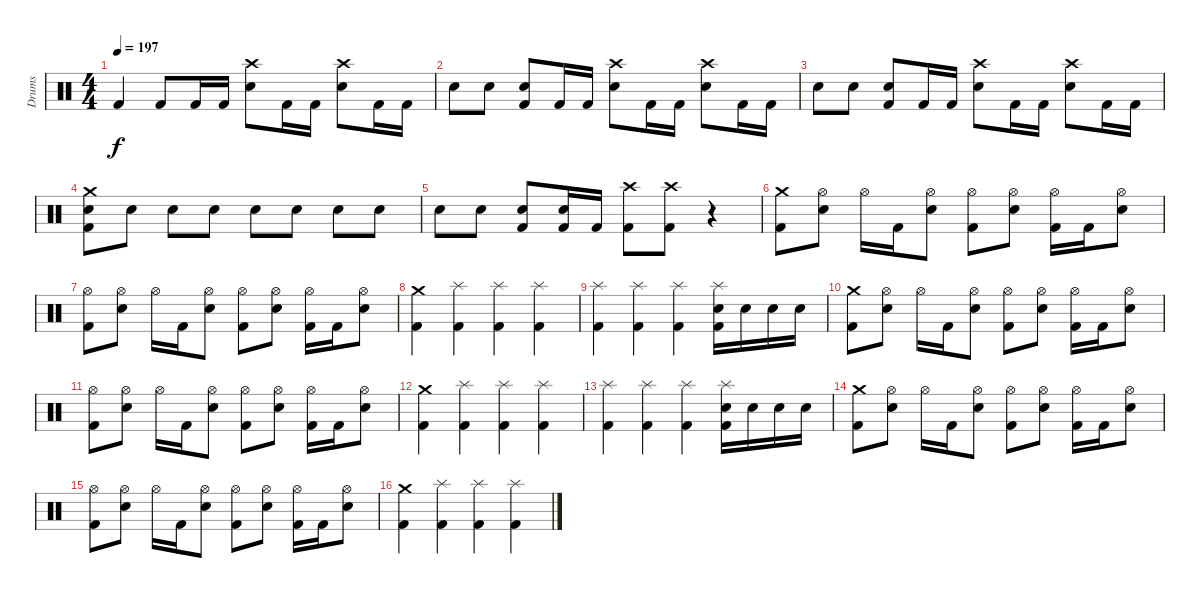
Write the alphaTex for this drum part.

\track ("Drums" "Drums") {instrument percussion}
\staff {score}
\articulation defaults
\ts (4 4)
\tempo 197
\clef neutral
\ks c "Kick (hit) 2".4{dy f} "Kick (hit) 2".8 "Kick (hit) 2".16 "Kick (hit) 2".16
("Crash high (hit)" "Snare (hit) 2").8 "Kick (hit) 2".16 "Kick (hit) 2".16 ("Crash high (hit)" "Snare (hit) 2").8 "Kick (hit) 2".16 "Kick (hit) 2".16 |
"Snare (hit) 2".8 "Snare (hit) 2".8 ("Snare (hit) 2" "Kick (hit) 2").8 "Kick (hit) 2".16 "Kick (hit) 2".16 ("Crash high (hit)" "Snare (hit) 2").8 "Kick (hit) 2".16 "Kick (hit) 2".16 ("Crash high (hit)" "Snare (hit) 2").8 "Kick (hit) 2".16 "Kick (hit) 2".16 |
"Snare (hit) 2".8 "Snare (hit) 2".8 ("Snare (hit) 2" "Kick (hit) 2").8 "Kick (hit) 2".16 "Kick (hit) 2".16 ("Crash high (hit)" "Snare (hit) 2").8 "Kick (hit) 2".16 "Kick (hit) 2".16 ("Crash high (hit)" "Snare (hit) 2").8 "Kick (hit) 2".16 "Kick (hit) 2".16 |
("Crash medium (hit)" "Snare (hit) 2" "Kick (hit) 2").8 "Snare (hit) 2".8 "Snare (hit) 2".8 "Snare (hit) 2".8 "Snare (hit) 2".8 "Snare (hit) 2".8 "Snare (hit) 2".8 "Snare (hit) 2".8 |
"Snare (hit) 2".8 "Snare (hit) 2".8 ("Snare (hit) 2" "Kick (hit) 2").8 ("Snare (hit) 2" "Kick (hit) 2").16 "Kick (hit) 2".16 ("Crash high (hit)" "Kick (hit) 2").8 ("Crash high (hit)" "Kick (hit) 2").8 r.4 |
("Crash medium (hit)" "Kick (hit) 2").8 ("Hi-Hat (open)" "Snare (hit) 2").8 "Hi-Hat (open)".16 "Kick (hit) 2".16 ("Hi-Hat (open)" "Snare (hit) 2").8 ("Hi-Hat (open)" "Kick (hit) 2").8 ("Hi-Hat (open)" "Snare (hit) 2").8 ("Hi-Hat (open)" "Kick (hit) 2").16 "Kick (hit) 2".16 ("Hi-Hat (open)" "Snare (hit) 2").8 |
("Hi-Hat (open)" "Kick (hit) 2").8 ("Hi-Hat (open)" "Snare (hit) 2").8 "Hi-Hat (open)".16 "Kick (hit) 2".16 ("Hi-Hat (open)" "Snare (hit) 2").8 ("Hi-Hat (open)" "Kick (hit) 2").8 ("Hi-Hat (open)" "Snare (hit) 2").8 ("Hi-Hat (open)" "Kick (hit) 2").16 "Kick (hit) 2".16 ("Hi-Hat (open)" "Snare (hit) 2").8 |
("Crash medium (hit)" "Kick (hit) 2").4 ("Splash (hit)" "Kick (hit) 2").4 ("Splash (hit)" "Kick (hit) 2").4 ("Splash (hit)" "Kick (hit) 2").4 |
("Splash (hit)" "Kick (hit) 2").4 ("Splash (hit)" "Kick (hit) 2").4 ("Splash (hit)" "Kick (hit) 2").4 ("Splash (hit)" "Snare (hit) 2" "Kick (hit) 2").16 "Snare (hit) 2".16 "Snare (hit) 2".16 "Snare (hit) 2".16 |
("Crash medium (hit)" "Kick (hit) 2").8 ("Hi-Hat (open)" "Snare (hit) 2").8 "Hi-Hat (open)".16 "Kick (hit) 2".16 ("Hi-Hat (open)" "Snare (hit) 2").8 ("Hi-Hat (open)" "Kick (hit) 2").8 ("Hi-Hat (open)" "Snare (hit) 2").8 ("Hi-Hat (open)" "Kick (hit) 2").16 "Kick (hit) 2".16 ("Hi-Hat (open)" "Snare (hit) 2").8 |
("Hi-Hat (open)" "Kick (hit) 2").8 ("Hi-Hat (open)" "Snare (hit) 2").8 "Hi-Hat (open)".16 "Kick (hit) 2".16 ("Hi-Hat (open)" "Snare (hit) 2").8 ("Hi-Hat (open)" "Kick (hit) 2").8 ("Hi-Hat (open)" "Snare (hit) 2").8 ("Hi-Hat (open)" "Kick (hit) 2").16 "Kick (hit) 2".16 ("Hi-Hat (open)" "Snare (hit) 2").8 |
("Crash medium (hit)" "Kick (hit) 2").4 ("Splash (hit)" "Kick (hit) 2").4 ("Splash (hit)" "Kick (hit) 2").4 ("Splash (hit)" "Kick (hit) 2").4 |
("Splash (hit)" "Kick (hit) 2").4 ("Splash (hit)" "Kick (hit) 2").4 ("Splash (hit)" "Kick (hit) 2").4 ("Splash (hit)" "Snare (hit) 2" "Kick (hit) 2").16 "Snare (hit) 2".16 "Snare (hit) 2".16 "Snare (hit) 2".16 |
("Crash medium (hit)" "Kick (hit) 2").8 ("Hi-Hat (open)" "Snare (hit) 2").8 "Hi-Hat (open)".16 "Kick (hit) 2".16 ("Hi-Hat (open)" "Snare (hit) 2").8 ("Hi-Hat (open)" "Kick (hit) 2").8 ("Hi-Hat (open)" "Snare (hit) 2").8 ("Hi-Hat (open)" "Kick (hit) 2").16 "Kick (hit) 2".16 ("Hi-Hat (open)" "Snare (hit) 2").8 |
("Hi-Hat (open)" "Kick (hit) 2").8 ("Hi-Hat (open)" "Snare (hit) 2").8 "Hi-Hat (open)".16 "Kick (hit) 2".16 ("Hi-Hat (open)" "Snare (hit) 2").8 ("Hi-Hat (open)" "Kick (hit) 2").8 ("Hi-Hat (open)" "Snare (hit) 2").8 ("Hi-Hat (open)" "Kick (hit) 2").16 "Kick (hit) 2".16 ("Hi-Hat (open)" "Snare (hit) 2").8 |
("Crash medium (hit)" "Kick (hit) 2").4 ("Splash (hit)" "Kick (hit) 2").4 ("Splash (hit)" "Kick (hit) 2").4 ("Splash (hit)" "Kick (hit) 2").4
